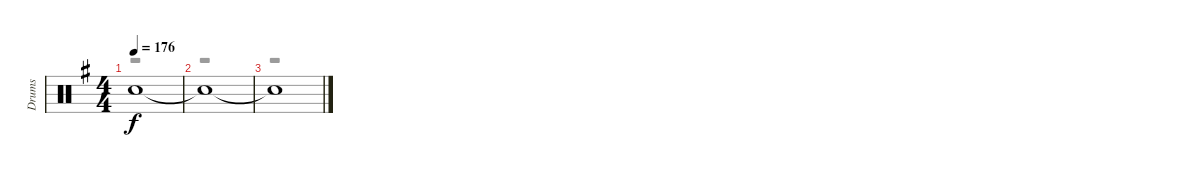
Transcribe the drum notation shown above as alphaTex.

\track ("Drums" "Drums") {instrument percussion}
\staff {score}
\articulation defaults
\voice
\ts (4 4)
\tempo 176
\clef neutral
\ks g "Snare (hit)"{t}.1{dy f}
|
"Snare (hit)"{t}.1 |
"Snare (hit)"{t}.1
\voice
\clef neutral
\ottava regular
\simile none
\ks g
r.1{dy fff} |
r.1 |
r.1
